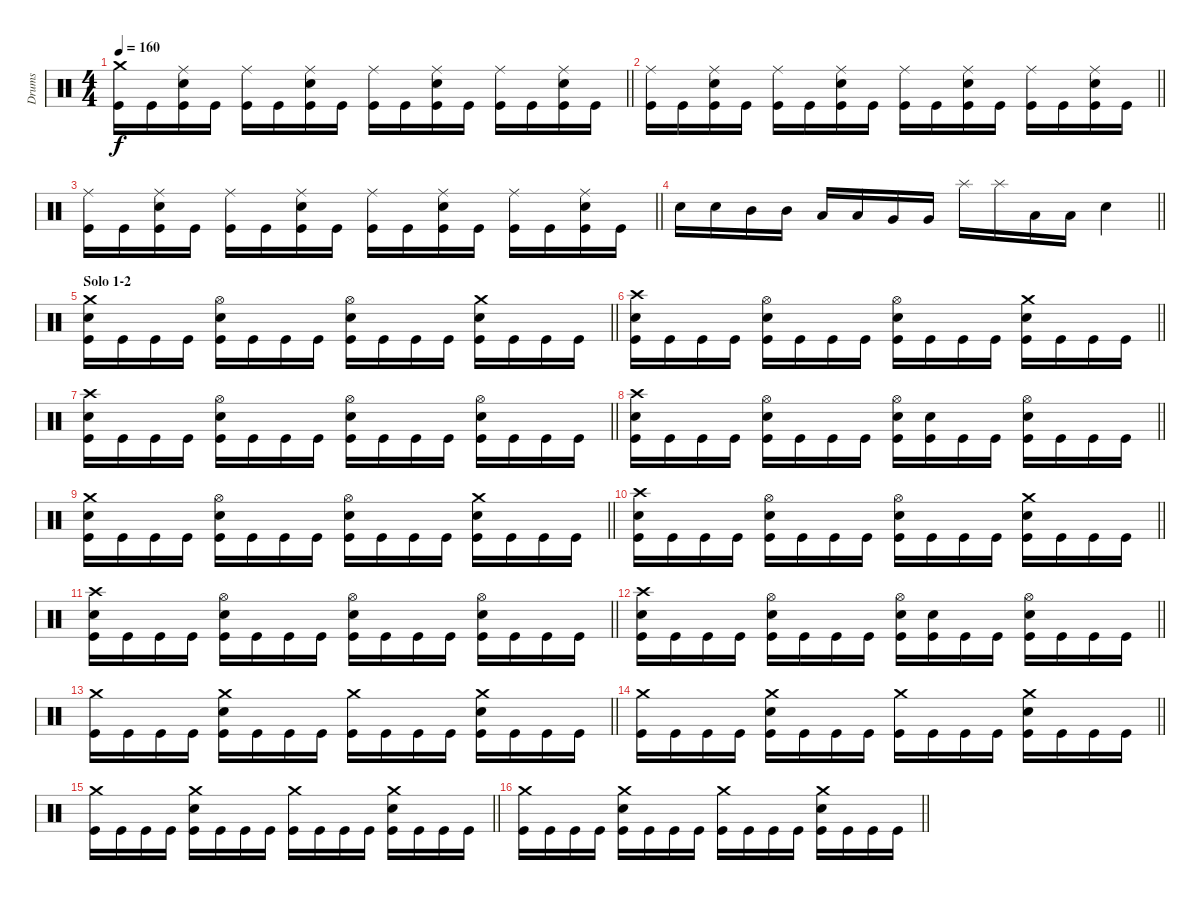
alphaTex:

\track ("Drums" "Drums") {instrument percussion}
\staff {score}
\articulation defaults
\ts (4 4)
\tempo 160
\clef neutral
\barLineRight lightlight
\ks c
("Crash medium (hit)" "Kick (hit)").16{dy f} "Kick (hit)".16 ("Ride (middle)" "Snare (hit) 2" "Kick (hit)").16 "Kick (hit)".16 ("Ride (middle)" "Kick (hit)").16 "Kick (hit)".16 ("Ride (middle)" "Snare (hit) 2" "Kick (hit)").16 "Kick (hit)".16 ("Ride (middle)" "Kick (hit)").16 "Kick (hit)".16 ("Ride (middle)" "Snare (hit) 2" "Kick (hit)").16 "Kick (hit)".16 ("Ride (middle)" "Kick (hit)").16 "Kick (hit)".16 ("Ride (middle)" "Snare (hit) 2" "Kick (hit)").16 "Kick (hit)".16 |
\barLineRight lightlight
("Ride (middle)" "Kick (hit)").16 "Kick (hit)".16 ("Ride (middle)" "Snare (hit) 2" "Kick (hit)").16 "Kick (hit)".16 ("Ride (middle)" "Kick (hit)").16 "Kick (hit)".16 ("Ride (middle)" "Snare (hit) 2" "Kick (hit)").16 "Kick (hit)".16 ("Ride (middle)" "Kick (hit)").16 "Kick (hit)".16 ("Ride (middle)" "Snare (hit) 2" "Kick (hit)").16 "Kick (hit)".16 ("Ride (middle)" "Kick (hit)").16 "Kick (hit)".16 ("Ride (middle)" "Snare (hit) 2" "Kick (hit)").16 "Kick (hit)".16 |
\barLineRight lightlight
("Ride (middle)" "Kick (hit)").16 "Kick (hit)".16 ("Ride (middle)" "Snare (hit) 2" "Kick (hit)").16 "Kick (hit)".16 ("Ride (middle)" "Kick (hit)").16 "Kick (hit)".16 ("Ride (middle)" "Snare (hit) 2" "Kick (hit)").16 "Kick (hit)".16 ("Ride (middle)" "Kick (hit)").16 "Kick (hit)".16 ("Ride (middle)" "Snare (hit) 2" "Kick (hit)").16 "Kick (hit)".16 ("Ride (middle)" "Kick (hit)").16 "Kick (hit)".16 ("Ride (middle)" "Snare (hit) 2" "Kick (hit)").16 "Kick (hit)".16 |
\barLineRight lightlight "Snare (hit) 2".16 "Snare (hit) 2".16 "Mid Tom (hit)".16 "Mid Tom (hit)".16 "Low Tom (hit)".16 "Low Tom (hit)".16 "Very Low Tom (hit)".16 "Very Low Tom (hit)".16 "Splash (hit)".16 "Splash (hit)".16 "Low Floor Tom (hit)".16 "Low Floor Tom (hit)".16 "Snare (hit) 2".4
|
\section ("" "Solo 1-2")
\barLineRight lightlight
("Crash medium (hit)" "Snare (hit) 2" "Kick (hit)").16 "Kick (hit)".16 "Kick (hit)".16 "Kick (hit)".16 ("Hi-Hat (open)" "Snare (hit) 2" "Kick (hit)").16 "Kick (hit)".16 "Kick (hit)".16 "Kick (hit)".16 ("Hi-Hat (open)" "Snare (hit) 2" "Kick (hit)").16 "Kick (hit)".16 "Kick (hit)".16 "Kick (hit)".16 ("Crash medium (hit)" "Snare (hit) 2" "Kick (hit)").16 "Kick (hit)".16 "Kick (hit)".16 "Kick (hit)".16 |
\barLineRight lightlight
("Crash high (hit)" "Snare (hit) 2" "Kick (hit)").16 "Kick (hit)".16 "Kick (hit)".16 "Kick (hit)".16 ("Hi-Hat (open)" "Snare (hit) 2" "Kick (hit)").16 "Kick (hit)".16 "Kick (hit)".16 "Kick (hit)".16 ("Hi-Hat (open)" "Snare (hit) 2" "Kick (hit)").16 "Kick (hit)".16 "Kick (hit)".16 "Kick (hit)".16 ("Crash medium (hit)" "Snare (hit) 2" "Kick (hit)").16 "Kick (hit)".16 "Kick (hit)".16 "Kick (hit)".16 |
\barLineRight lightlight
("Crash high (hit)" "Snare (hit) 2" "Kick (hit)").16 "Kick (hit)".16 "Kick (hit)".16 "Kick (hit)".16 ("Hi-Hat (open)" "Snare (hit) 2" "Kick (hit)").16 "Kick (hit)".16 "Kick (hit)".16 "Kick (hit)".16 ("Hi-Hat (open)" "Snare (hit) 2" "Kick (hit)").16 "Kick (hit)".16 "Kick (hit)".16 "Kick (hit)".16 ("Hi-Hat (open)" "Snare (hit) 2" "Kick (hit)").16 "Kick (hit)".16 "Kick (hit)".16 "Kick (hit)".16 |
\barLineRight lightlight
("Crash high (hit)" "Snare (hit) 2" "Kick (hit)").16 "Kick (hit)".16 "Kick (hit)".16 "Kick (hit)".16 ("Hi-Hat (open)" "Snare (hit) 2" "Kick (hit)").16 "Kick (hit)".16 "Kick (hit)".16 "Kick (hit)".16 ("Hi-Hat (open)" "Snare (hit) 2" "Kick (hit)").16 ("Snare (hit) 2" "Kick (hit)").16 "Kick (hit)".16 "Kick (hit)".16 ("Hi-Hat (open)" "Snare (hit) 2" "Kick (hit)").16 "Kick (hit)".16 "Kick (hit)".16 "Kick (hit)".16 |
\barLineRight lightlight
("Crash medium (hit)" "Snare (hit) 2" "Kick (hit)").16 "Kick (hit)".16 "Kick (hit)".16 "Kick (hit)".16 ("Hi-Hat (open)" "Snare (hit) 2" "Kick (hit)").16 "Kick (hit)".16 "Kick (hit)".16 "Kick (hit)".16 ("Hi-Hat (open)" "Snare (hit) 2" "Kick (hit)").16 "Kick (hit)".16 "Kick (hit)".16 "Kick (hit)".16 ("Crash medium (hit)" "Snare (hit) 2" "Kick (hit)").16 "Kick (hit)".16 "Kick (hit)".16 "Kick (hit)".16 |
\barLineRight lightlight
("Crash high (hit)" "Snare (hit) 2" "Kick (hit)").16 "Kick (hit)".16 "Kick (hit)".16 "Kick (hit)".16 ("Hi-Hat (open)" "Snare (hit) 2" "Kick (hit)").16 "Kick (hit)".16 "Kick (hit)".16 "Kick (hit)".16 ("Hi-Hat (open)" "Snare (hit) 2" "Kick (hit)").16 "Kick (hit)".16 "Kick (hit)".16 "Kick (hit)".16 ("Crash medium (hit)" "Snare (hit) 2" "Kick (hit)").16 "Kick (hit)".16 "Kick (hit)".16 "Kick (hit)".16 |
\barLineRight lightlight
("Crash high (hit)" "Snare (hit) 2" "Kick (hit)").16 "Kick (hit)".16 "Kick (hit)".16 "Kick (hit)".16 ("Hi-Hat (open)" "Snare (hit) 2" "Kick (hit)").16 "Kick (hit)".16 "Kick (hit)".16 "Kick (hit)".16 ("Hi-Hat (open)" "Snare (hit) 2" "Kick (hit)").16 "Kick (hit)".16 "Kick (hit)".16 "Kick (hit)".16 ("Hi-Hat (open)" "Snare (hit) 2" "Kick (hit)").16 "Kick (hit)".16 "Kick (hit)".16 "Kick (hit)".16 |
\barLineRight lightlight
("Crash high (hit)" "Snare (hit) 2" "Kick (hit)").16 "Kick (hit)".16 "Kick (hit)".16 "Kick (hit)".16 ("Hi-Hat (open)" "Snare (hit) 2" "Kick (hit)").16 "Kick (hit)".16 "Kick (hit)".16 "Kick (hit)".16 ("Hi-Hat (open)" "Snare (hit) 2" "Kick (hit)").16 ("Snare (hit) 2" "Kick (hit)").16 "Kick (hit)".16 "Kick (hit)".16 ("Hi-Hat (open)" "Snare (hit) 2" "Kick (hit)").16 "Kick (hit)".16 "Kick (hit)".16 "Kick (hit)".16 |
\barLineRight lightlight
("Crash medium (hit)" "Kick (hit)").16 "Kick (hit)".16 "Kick (hit)".16 "Kick (hit)".16 ("Crash medium (hit)" "Snare (hit) 2" "Kick (hit)").16 "Kick (hit)".16 "Kick (hit)".16 "Kick (hit)".16 ("Crash medium (hit)" "Kick (hit)").16 "Kick (hit)".16 "Kick (hit)".16 "Kick (hit)".16 ("Crash medium (hit)" "Snare (hit) 2" "Kick (hit)").16 "Kick (hit)".16 "Kick (hit)".16 "Kick (hit)".16 |
\barLineRight lightlight
("Crash medium (hit)" "Kick (hit)").16 "Kick (hit)".16 "Kick (hit)".16 "Kick (hit)".16 ("Crash medium (hit)" "Snare (hit) 2" "Kick (hit)").16 "Kick (hit)".16 "Kick (hit)".16 "Kick (hit)".16 ("Crash medium (hit)" "Kick (hit)").16 "Kick (hit)".16 "Kick (hit)".16 "Kick (hit)".16 ("Crash medium (hit)" "Snare (hit) 2" "Kick (hit)").16 "Kick (hit)".16 "Kick (hit)".16 "Kick (hit)".16 |
\barLineRight lightlight
("Crash medium (hit)" "Kick (hit)").16 "Kick (hit)".16 "Kick (hit)".16 "Kick (hit)".16 ("Crash medium (hit)" "Snare (hit) 2" "Kick (hit)").16 "Kick (hit)".16 "Kick (hit)".16 "Kick (hit)".16 ("Crash medium (hit)" "Kick (hit)").16 "Kick (hit)".16 "Kick (hit)".16 "Kick (hit)".16 ("Crash medium (hit)" "Snare (hit) 2" "Kick (hit)").16 "Kick (hit)".16 "Kick (hit)".16 "Kick (hit)".16 |
\barLineRight lightlight
("Crash medium (hit)" "Kick (hit)").16 "Kick (hit)".16 "Kick (hit)".16 "Kick (hit)".16 ("Crash medium (hit)" "Snare (hit) 2" "Kick (hit)").16 "Kick (hit)".16 "Kick (hit)".16 "Kick (hit)".16 ("Crash medium (hit)" "Kick (hit)").16 "Kick (hit)".16 "Kick (hit)".16 "Kick (hit)".16 ("Crash medium (hit)" "Snare (hit) 2" "Kick (hit)").16 "Kick (hit)".16 "Kick (hit)".16 "Kick (hit)".16
